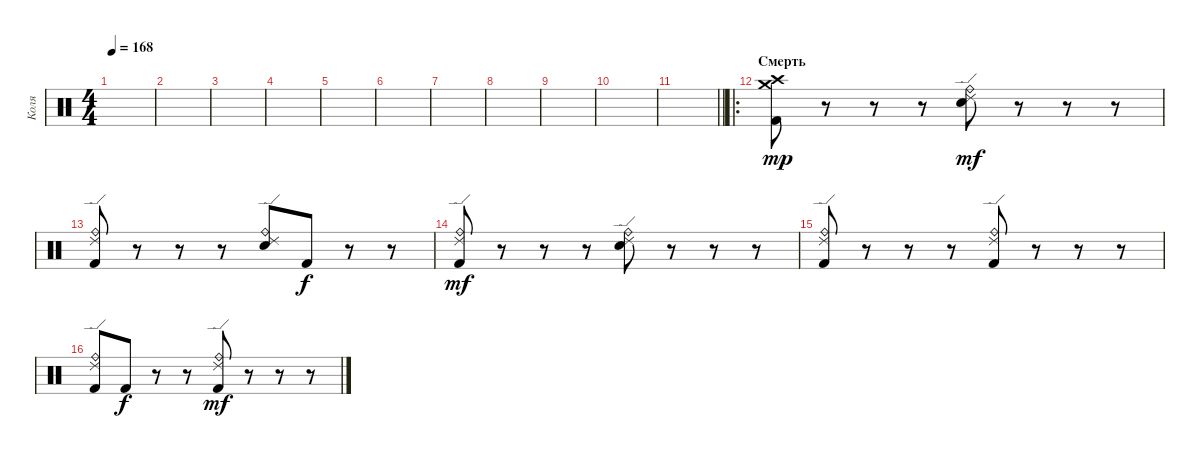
\track ("Коля" "Коля") {instrument percussion}
\staff {score}
\articulation defaults
\ts (4 4)
\tempo 168
\clef neutral
\ks c
|
|
|
|
|
|
|
|
|
|
\barLineRight lightlight
|
\ro
\section ("" "Смерть")
("Kick (hit) 2" "Crash medium (hit)" "Crash high (hit)").8{dy mp} r.8 r.8 r.8 ("Snare (hit) 2" "Ride (bell)" "Ride (edge) 2").8{dy mf} r.8 r.8 r.8 |
("Kick (hit) 2" "Ride (bell)" "Ride (edge) 2").8 r.8 r.8 r.8 ("Snare (hit) 2" "Ride (bell)" "Ride (edge) 2").8 "Kick (hit) 2".8{dy f} r.8 r.8 |
("Kick (hit) 2" "Ride (bell)" "Ride (edge) 2").8{dy mf} r.8 r.8 r.8 ("Snare (hit) 2" "Ride (bell)" "Ride (edge) 2").8 r.8 r.8 r.8 |
("Kick (hit) 2" "Ride (bell)" "Ride (edge) 2").8 r.8 r.8 r.8 ("Kick (hit) 2" "Ride (bell)" "Ride (edge) 2").8 r.8 r.8 r.8 |
("Kick (hit) 2" "Ride (bell)" "Ride (edge) 2").8 "Kick (hit) 2".8{dy f} r.8 r.8 ("Kick (hit) 2" "Ride (bell)" "Ride (edge) 2").8{dy mf} r.8 r.8 r.8
